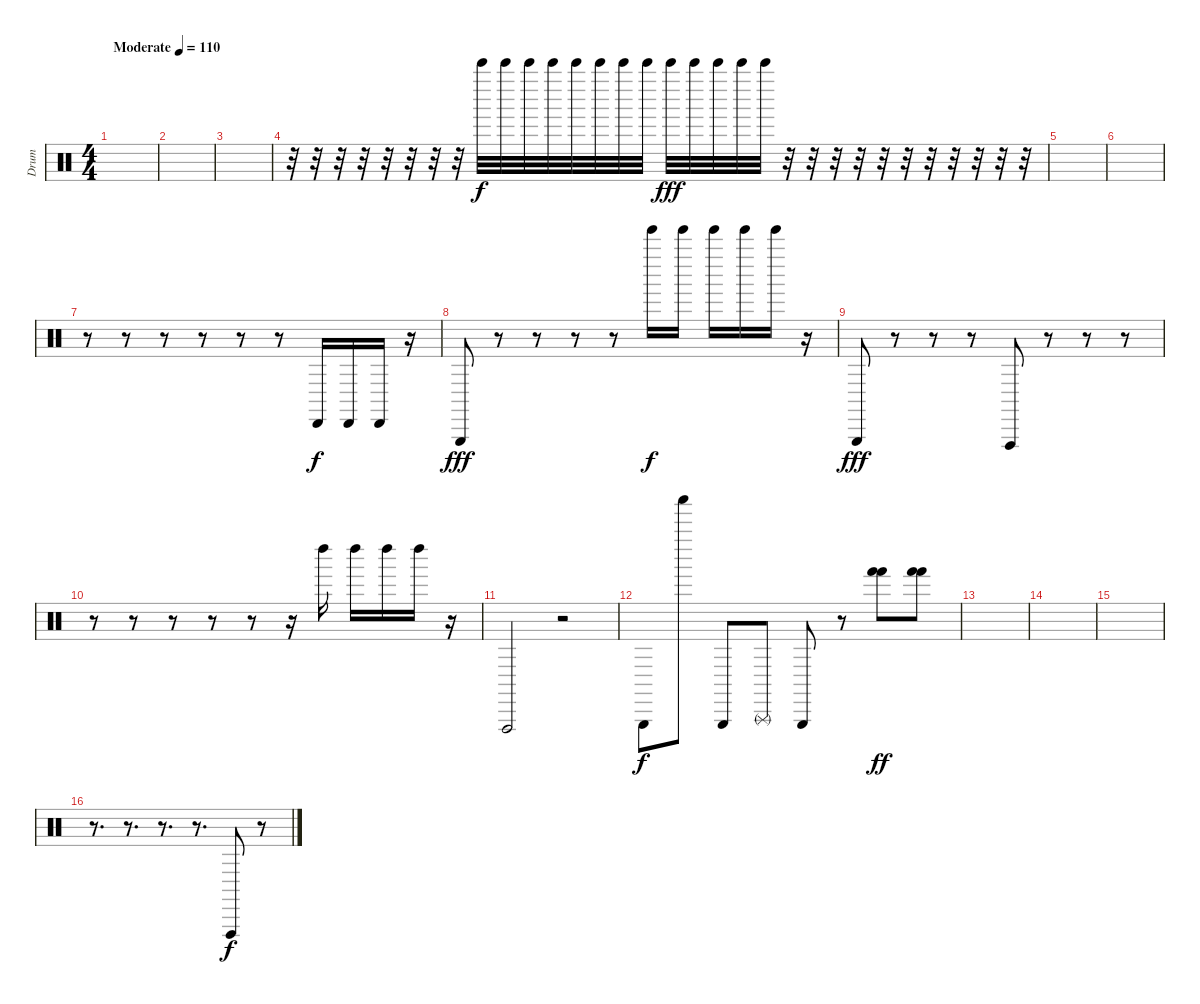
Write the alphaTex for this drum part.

\track ("Drum" "Drum") {instrument percussion}
\staff {score}
\articulation defaults
\ts (4 4)
\tempo (110 "Moderate")
\clef neutral
\ks c
|
|
|
r.32 r.32 r.32 r.32 r.32 r.32 r.32 r.32 "Bell Tree (hit)".32 "Bell Tree (hit)".32 "Bell Tree (hit)".32 "Bell Tree (hit)".32 "Bell Tree (hit)".32 "Bell Tree (hit)".32{dy f} "Bell Tree (hit)".32 "Bell Tree (hit)".32 "Bell Tree (hit)".32{dy fff} "Bell Tree (hit)".32 "Bell Tree (hit)".32 "Bell Tree (hit)".32 "Bell Tree (hit)".32 r.32 r.32 r.32 r.32 r.32 r.32 r.32 r.32 r.32 r.32 r.32 |
|
|
r.8 r.8 r.8 r.8 r.8 r.8 "Cabasa (hit)".16{dy f beam merge} "Cabasa (hit)".16{beam merge} "Cabasa (hit)".16 r.16 |
"Triangle (hit)".8{dy fff} r.8 r.8 r.8 r.8 "Tinkle Bell (hit)".16{dy f} "Tinkle Bell (hit)".16 "Tinkle Bell (hit)".16 "Tinkle Bell (hit)".16 "Tinkle Bell (hit)".16 r.16 |
"Triangle (hit)".8{dy fff} r.8 r.8 r.8 "Vibraslap (hit)".8 r.8 r.8 r.8 |
r.8 r.8 r.8 r.8 r.8 r.16 "Left Maraca (hit)".16 "Left Maraca (hit)".16 "Left Maraca (hit)".16 "Left Maraca (hit)".16 r.16 |
"Vibraslap (hit)".2 r.2 |
"Triangle (hit)".8{dy f} "Shaker (hit)".8 "Triangle (hit)".8 "Triangle (rnute)".8 "Triangle (hit)".8 r.8 ("Hand (hit)" "Hand (hit)").8{dy ff} ("Hand (hit)" "Hand (hit)").8 |
|
|
|
r.8{d} r.8{d} r.8{d} r.8{d} "Vibraslap (hit)".8{dy f} r.8
